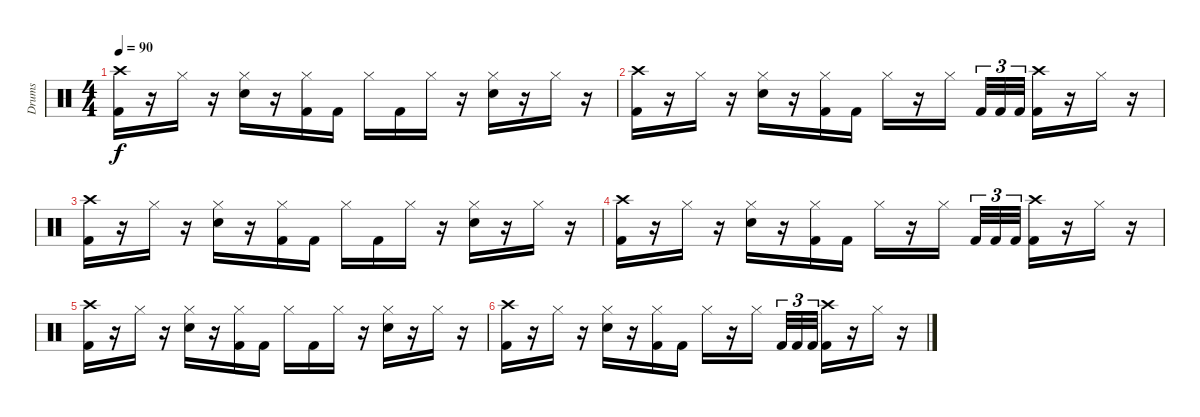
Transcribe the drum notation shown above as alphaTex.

\track ("Drums" "Drums") {instrument percussion}
\staff {score}
\articulation defaults
\ts (4 4)
\tempo 90
\clef neutral
\ks c
("Kick (hit) 2" "Crash high (hit)").16{dy f volume 10} r.16 "Hi-Hat (closed)".16{volume 10} r.16 ("Electric Snare (hit)" "Hi-Hat (closed)").16{volume 10} r.16 ("Kick (hit) 2" "Hi-Hat (closed)").16{volume 10} "Kick (hit) 2".16 "Hi-Hat (closed)".16{volume 9} "Kick (hit) 2".16{volume 9} "Hi-Hat (closed)".16{volume 9} r.16 ("Electric Snare (hit)" "Hi-Hat (closed)").16{volume 9} r.16 "Hi-Hat (closed)".16{volume 9} r.16 |
("Kick (hit) 2" "Crash high (hit)").16{volume 9} r.16 "Hi-Hat (closed)".16{volume 8} r.16 ("Hi-Hat (closed)" "Electric Snare (hit)").16{volume 8} r.16 ("Hi-Hat (closed)" "Kick (hit) 2").16{volume 8} "Kick (hit) 2".16{volume 8} "Hi-Hat (closed)".16{volume 8} r.16 "Hi-Hat (closed)".16{volume 8 beam splitsecondary} "Kick (hit) 2".32{tu (3 2) volume 8} "Kick (hit) 2".32{tu (3 2)} "Kick (hit) 2".32{tu (3 2)} ("Crash high (hit)" "Kick (hit) 2").16{volume 7} r.16 "Hi-Hat (closed)".16{volume 7} r.16 |
("Kick (hit) 2" "Crash high (hit)").16{volume 7} r.16 "Hi-Hat (closed)".16{volume 7} r.16 ("Electric Snare (hit)" "Hi-Hat (closed)").16{volume 7} r.16 ("Kick (hit) 2" "Hi-Hat (closed)").16{volume 6} "Kick (hit) 2".16 "Hi-Hat (closed)".16{volume 6} "Kick (hit) 2".16{volume 6} "Hi-Hat (closed)".16{volume 6} r.16 ("Electric Snare (hit)" "Hi-Hat (closed)").16{volume 6} r.16 "Hi-Hat (closed)".16{volume 6} r.16 |
("Kick (hit) 2" "Crash high (hit)").16{volume 6} r.16 "Hi-Hat (closed)".16{volume 5} r.16 ("Hi-Hat (closed)" "Electric Snare (hit)").16{volume 5} r.16 ("Hi-Hat (closed)" "Kick (hit) 2").16{volume 5} "Kick (hit) 2".16{volume 5} "Hi-Hat (closed)".16{volume 5} r.16 "Hi-Hat (closed)".16{volume 4 beam splitsecondary} "Kick (hit) 2".32{tu (3 2) volume 4} "Kick (hit) 2".32{tu (3 2)} "Kick (hit) 2".32{tu (3 2)} ("Crash high (hit)" "Kick (hit) 2").16{volume 4} r.16 "Hi-Hat (closed)".16{volume 4} r.16 |
("Crash high (hit)" "Kick (hit) 2").16{volume 4} r.16 "Hi-Hat (closed)".16{volume 4} r.16 ("Hi-Hat (closed)" "Electric Snare (hit)").16{volume 4} r.16 ("Hi-Hat (closed)" "Kick (hit) 2").16{volume 3} "Kick (hit) 2".16 "Hi-Hat (closed)".16{volume 3} "Kick (hit) 2".16{volume 3} "Hi-Hat (closed)".16{volume 3} r.16 ("Hi-Hat (closed)" "Electric Snare (hit)").16{volume 3} r.16 "Hi-Hat (closed)".16{volume 2} r.16 |
("Crash high (hit)" "Kick (hit) 2").16{volume 2} r.16 "Hi-Hat (closed)".16{volume 2} r.16 ("Electric Snare (hit)" "Hi-Hat (closed)").16{volume 2} r.16 ("Kick (hit) 2" "Hi-Hat (closed)").16{volume 2} "Kick (hit) 2".16{volume 2} "Hi-Hat (closed)".16{volume 2} r.16 "Hi-Hat (closed)".16{volume 1 beam splitsecondary} "Kick (hit) 2".32{tu (3 2) volume 1} "Kick (hit) 2".32{tu (3 2)} "Kick (hit) 2".32{tu (3 2)} ("Kick (hit) 2" "Crash high (hit)").16{volume 1} r.16 "Hi-Hat (closed)".16{volume 1} r.16
